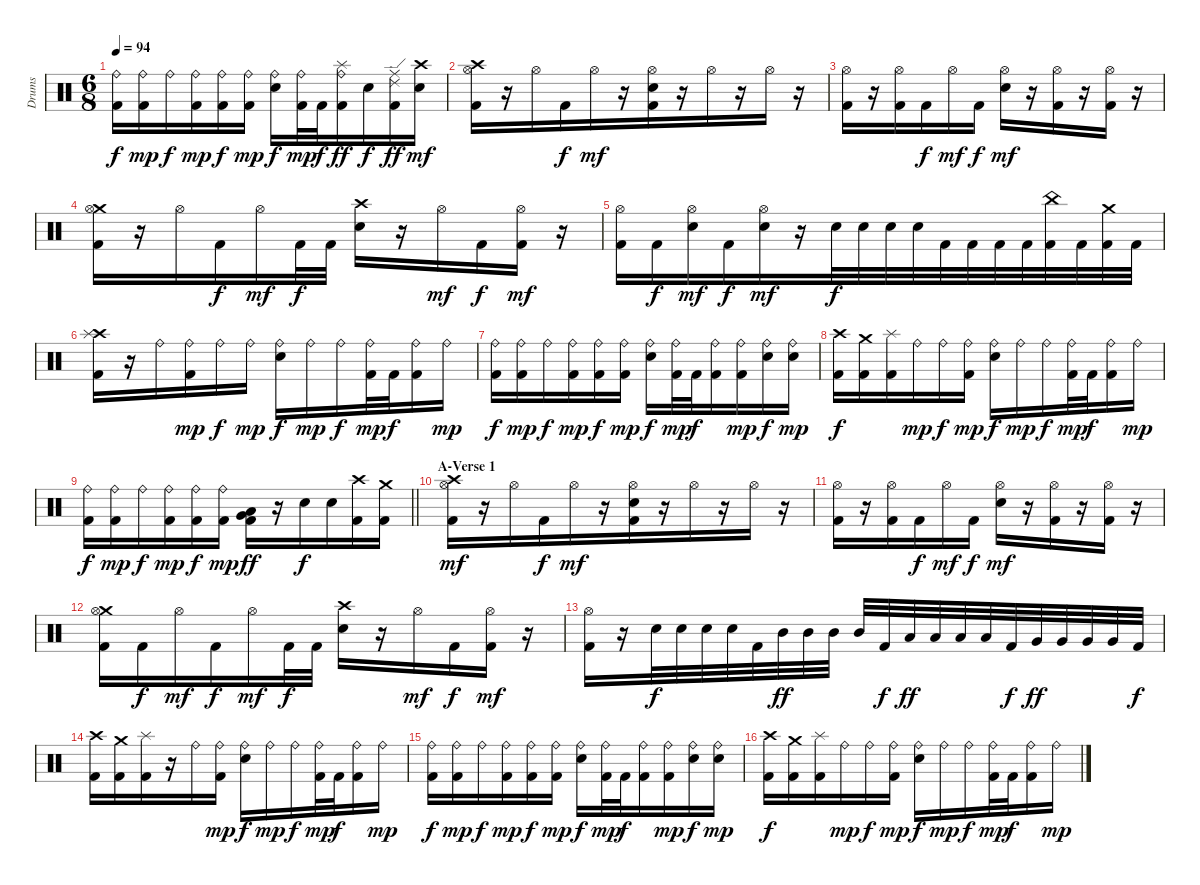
\track ("Drums" "Drums") {instrument percussion}
\staff {score}
\articulation defaults
\ts (6 8)
\tempo 94
\clef neutral
\ks c
("Ride (bell)" "Kick (hit) 2").16{dy f beam merge} ("Ride (bell)" "Kick (hit) 2").16{dy mp beam merge} "Ride (bell)".16{dy f} ("Ride (bell)" "Kick (hit) 2").16{dy mp beam merge} ("Ride (bell)" "Kick (hit) 2").16{dy f} ("Ride (bell)" "Kick (hit) 2").16{dy mp} ("Ride (bell)" "Snare (hit) 2").16{dy f} ("Ride (bell)" "Kick (hit) 2").32{dy mp} "Kick (hit) 2".32{dy f} ("Splash (hit)" "Ride (bell)" "Kick (hit) 2").16{dy ff beam merge} "Snare (hit) 2".16{dy f beam merge} ("Ride (edge) 2" "Ride (middle)" "Kick (hit) 2").16{dy ff} ("Crash high (hit)" "Snare (hit) 2").16{dy mf} |
("Crash high (hit)" "Hi-Hat (open)" "Kick (hit) 2").16 r.16 "Hi-Hat (open)".16{beam merge} "Kick (hit) 2".16{dy f} "Hi-Hat (open)".16{dy mf beam merge} r.16 ("Hi-Hat (open)" "Snare (hit) 2" "Kick (hit) 2").16 r.16 "Hi-Hat (open)".16 r.16{beam merge} "Hi-Hat (open)".16{beam merge} r.16 |
("Hi-Hat (open)" "Kick (hit) 2").16 r.16 ("Hi-Hat (open)" "Kick (hit) 2").16{beam merge} "Kick (hit) 2".16{dy f} "Hi-Hat (open)".16{dy mf beam merge} "Kick (hit) 2".16{dy f} ("Hi-Hat (open)" "Snare (hit) 2").16{dy mf} r.16 ("Hi-Hat (open)" "Kick (hit) 2").16 r.16{beam merge} ("Hi-Hat (open)" "Kick (hit) 2").16{beam merge} r.16 |
("Crash medium (hit)" "Hi-Hat (open)" "Kick (hit) 2").16 r.16 "Hi-Hat (open)".16{beam merge} "Kick (hit) 2".16{dy f} "Hi-Hat (open)".16{dy mf} "Kick (hit) 2".32{dy f beam merge} "Kick (hit) 2".32 ("Crash high (hit)" "Snare (hit) 2").16 r.16 "Hi-Hat (open)".16{dy mf} "Kick (hit) 2".16{dy f beam merge} ("Hi-Hat (open)" "Kick (hit) 2").16{dy mf beam merge} r.16 |
("Hi-Hat (open)" "Kick (hit) 2").16 "Kick (hit) 2".16{dy f} ("Hi-Hat (open)" "Snare (hit) 2").16{dy mf beam merge} "Kick (hit) 2".16{dy f} ("Hi-Hat (open)" "Snare (hit) 2").16{dy mf beam merge} r.16 "Snare (hit) 2".32{dy f beam merge} "Snare (hit) 2".32{beam merge} "Snare (hit) 2".32{beam merge} "Snare (hit) 2".32{beam merge} "Kick (hit) 2".32 "Kick (hit) 2".32{beam merge} "Kick (hit) 2".32 "Kick (hit) 2".32{beam merge} ("China (hit)" "Kick (hit) 2").32 "Kick (hit) 2".32 ("Crash medium (hit)" "Kick (hit) 2").32 "Kick (hit) 2".32 |
("Crash high (hit)" "Splash (hit)" "Kick (hit) 2").16{beam merge} r.16{beam merge} "Ride (bell)".16 ("Ride (bell)" "Kick (hit) 2").16{dy mp beam merge} "Ride (bell)".16{dy f} "Ride (bell)".16{dy mp} ("Ride (bell)" "Snare (hit) 2").16{dy f} "Ride (bell)".16{dy mp} "Ride (bell)".16{dy f beam merge} ("Ride (bell)" "Kick (hit) 2").32{dy mp} "Kick (hit) 2".32{dy f beam merge} ("Ride (bell)" "Kick (hit) 2").16 "Ride (bell)".16{dy mp} |
("Ride (bell)" "Kick (hit) 2").16{dy f beam merge} ("Ride (bell)" "Kick (hit) 2").16{dy mp beam merge} "Ride (bell)".16{dy f} ("Ride (bell)" "Kick (hit) 2").16{dy mp beam merge} ("Ride (bell)" "Kick (hit) 2").16{dy f} ("Ride (bell)" "Kick (hit) 2").16{dy mp} ("Ride (bell)" "Snare (hit) 2").16{dy f} ("Ride (bell)" "Kick (hit) 2").32{dy mp beam merge} "Kick (hit) 2".32{dy f} ("Ride (bell)" "Kick (hit) 2").16{beam merge} ("Ride (bell)" "Kick (hit) 2").16{dy mp beam merge} ("Ride (bell)" "Snare (hit) 2").16{dy f} ("Ride (bell)" "Snare (hit) 2").16{dy mp} |
("Crash high (hit)" "Kick (hit) 2").16{dy f beam merge} ("Crash medium (hit)" "Kick (hit) 2").16{beam merge} ("Splash (hit)" "Kick (hit) 2").16 "Ride (bell)".16{dy mp beam merge} "Ride (bell)".16{dy f} ("Ride (bell)" "Kick (hit) 2").16{dy mp} ("Ride (bell)" "Snare (hit) 2").16{dy f} "Ride (bell)".16{dy mp} "Ride (bell)".16{dy f beam merge} ("Ride (bell)" "Kick (hit) 2").32{dy mp beam merge} "Kick (hit) 2".32{dy f beam merge} ("Ride (bell)" "Kick (hit) 2").16 "Ride (bell)".16{dy mp} |
\barLineRight lightlight
("Ride (bell)" "Kick (hit) 2").16{dy f beam merge} ("Ride (bell)" "Kick (hit) 2").16{dy mp beam merge} "Ride (bell)".16{dy f} ("Ride (bell)" "Kick (hit) 2").16{dy mp beam merge} ("Ride (bell)" "Kick (hit) 2").16{dy f} ("Ride (bell)" "Kick (hit) 2").16{dy mp} ("Very Low Tom (hit)" "Low Floor Tom (hit)" "Kick (hit) 2").16{dy ff} r.16{beam merge} "Snare (hit) 2".16{dy f} "Snare (hit) 2".16 ("Crash high (hit)" "Kick (hit) 2").16 ("Crash medium (hit)" "Kick (hit) 2").16 |
\section ("" "A-Verse 1 ")
("Crash high (hit)" "Hi-Hat (open)" "Kick (hit) 2").16{dy mf} r.16 "Hi-Hat (open)".16{beam merge} "Kick (hit) 2".16{dy f} "Hi-Hat (open)".16{dy mf beam merge} r.16 ("Hi-Hat (open)" "Snare (hit) 2" "Kick (hit) 2").16 r.16 "Hi-Hat (open)".16 r.16{beam merge} "Hi-Hat (open)".16{beam merge} r.16 |
("Hi-Hat (open)" "Kick (hit) 2").16 r.16 ("Hi-Hat (open)" "Kick (hit) 2").16{beam merge} "Kick (hit) 2".16{dy f} "Hi-Hat (open)".16{dy mf beam merge} "Kick (hit) 2".16{dy f} ("Hi-Hat (open)" "Snare (hit) 2").16{dy mf} r.16 ("Hi-Hat (open)" "Kick (hit) 2").16 r.16{beam merge} ("Hi-Hat (open)" "Kick (hit) 2").16{beam merge} r.16 |
("Crash medium (hit)" "Hi-Hat (open)" "Kick (hit) 2").16 "Kick (hit) 2".16{dy f} "Hi-Hat (open)".16{dy mf beam merge} "Kick (hit) 2".16{dy f} "Hi-Hat (open)".16{dy mf} "Kick (hit) 2".32{dy f beam merge} "Kick (hit) 2".32 ("Crash high (hit)" "Snare (hit) 2").16 r.16 "Hi-Hat (open)".16{dy mf} "Kick (hit) 2".16{dy f beam merge} ("Hi-Hat (open)" "Kick (hit) 2").16{dy mf beam merge} r.16 |
("Hi-Hat (open)" "Kick (hit) 2").16 r.16 "Snare (hit) 2".32{dy f beam merge} "Snare (hit) 2".32 "Snare (hit) 2".32 "Snare (hit) 2".32 "Kick (hit) 2".32 "Mid Tom (hit)".32{dy ff} "Mid Tom (hit)".32{beam merge} "Mid Tom (hit)".32 "Mid Tom (hit)".32{beam merge} "Kick (hit) 2".32{dy f beam merge} "Low Tom (hit)".32{dy ff beam merge} "Low Tom (hit)".32{beam merge} "Low Tom (hit)".32 "Low Tom (hit)".32{beam merge} "Kick (hit) 2".32{dy f} "Very Low Tom (hit)".32{dy ff beam merge} "Very Low Tom (hit)".32 "Very Low Tom (hit)".32 "Very Low Tom (hit)".32 "Kick (hit) 2".32{dy f} |
("Crash high (hit)" "Kick (hit) 2").16{beam merge} ("Crash medium (hit)" "Kick (hit) 2").16{beam merge} ("Splash (hit)" "Kick (hit) 2").16 r.16{beam merge} "Ride (bell)".16 ("Ride (bell)" "Kick (hit) 2").16{dy mp} ("Ride (bell)" "Snare (hit) 2").16{dy f} "Ride (bell)".16{dy mp} "Ride (bell)".16{dy f beam merge} ("Ride (bell)" "Kick (hit) 2").32{dy mp} "Kick (hit) 2".32{dy f beam merge} ("Ride (bell)" "Kick (hit) 2").16 "Ride (bell)".16{dy mp} |
("Ride (bell)" "Kick (hit) 2").16{dy f beam merge} ("Ride (bell)" "Kick (hit) 2").16{dy mp beam merge} "Ride (bell)".16{dy f} ("Ride (bell)" "Kick (hit) 2").16{dy mp beam merge} ("Ride (bell)" "Kick (hit) 2").16{dy f} ("Ride (bell)" "Kick (hit) 2").16{dy mp} ("Ride (bell)" "Snare (hit) 2").16{dy f} ("Ride (bell)" "Kick (hit) 2").32{dy mp beam merge} "Kick (hit) 2".32{dy f} ("Ride (bell)" "Kick (hit) 2").16{beam merge} ("Ride (bell)" "Kick (hit) 2").16{dy mp beam merge} ("Ride (bell)" "Snare (hit) 2").16{dy f} ("Ride (bell)" "Snare (hit) 2").16{dy mp} |
("Crash high (hit)" "Kick (hit) 2").16{dy f beam merge} ("Crash medium (hit)" "Kick (hit) 2").16{beam merge} ("Splash (hit)" "Kick (hit) 2").16 "Ride (bell)".16{dy mp beam merge} "Ride (bell)".16{dy f} ("Ride (bell)" "Kick (hit) 2").16{dy mp} ("Ride (bell)" "Snare (hit) 2").16{dy f} "Ride (bell)".16{dy mp} "Ride (bell)".16{dy f beam merge} ("Ride (bell)" "Kick (hit) 2").32{dy mp beam merge} "Kick (hit) 2".32{dy f beam merge} ("Ride (bell)" "Kick (hit) 2").16 "Ride (bell)".16{dy mp}
